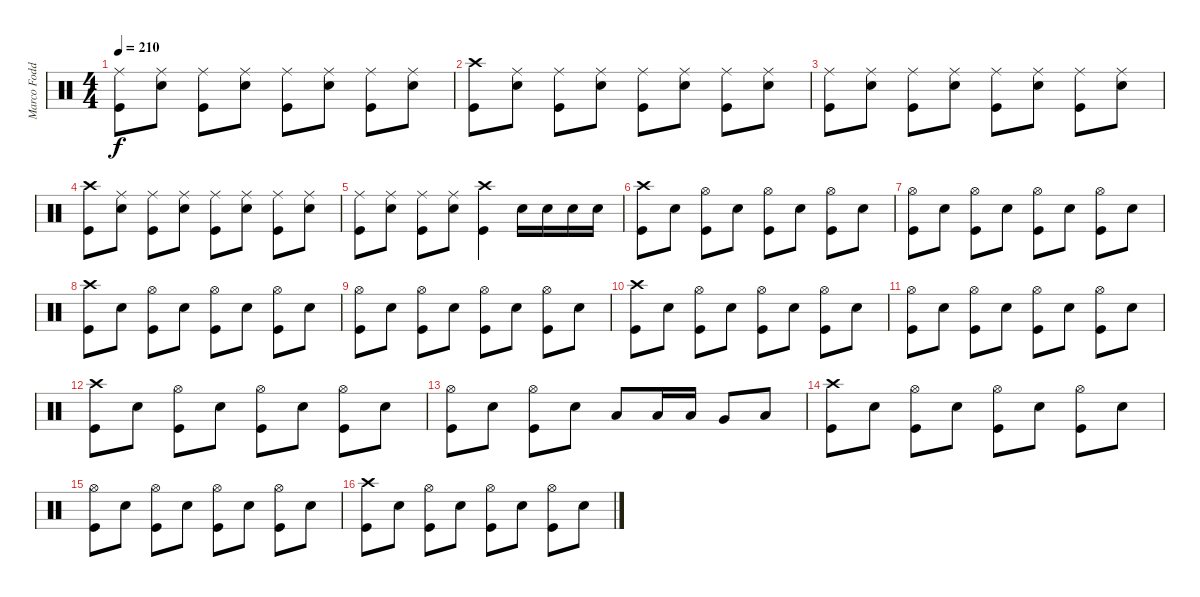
\track ("Marco Foddis" "Marco Fodd") {instrument percussion}
\staff {score}
\articulation defaults
\ts (4 4)
\tempo 210
\clef neutral
\ks c
("Ride (middle)" "Kick (hit)").8{dy f} ("Ride (middle)" "Snare (hit) 2").8 ("Ride (middle)" "Kick (hit)").8 ("Ride (middle)" "Snare (hit) 2").8 ("Ride (middle)" "Kick (hit)").8 ("Ride (middle)" "Snare (hit) 2").8 ("Ride (middle)" "Kick (hit)").8 ("Ride (middle)" "Snare (hit) 2").8 |
("Crash high (hit)" "Kick (hit)").8 ("Ride (middle)" "Snare (hit) 2").8 ("Ride (middle)" "Kick (hit)").8 ("Ride (middle)" "Snare (hit) 2").8 ("Ride (middle)" "Kick (hit)").8 ("Ride (middle)" "Snare (hit) 2").8 ("Ride (middle)" "Kick (hit)").8 ("Ride (middle)" "Snare (hit) 2").8 |
("Ride (middle)" "Kick (hit)").8 ("Ride (middle)" "Snare (hit) 2").8 ("Ride (middle)" "Kick (hit)").8 ("Ride (middle)" "Snare (hit) 2").8 ("Ride (middle)" "Kick (hit)").8 ("Ride (middle)" "Snare (hit) 2").8 ("Ride (middle)" "Kick (hit)").8 ("Ride (middle)" "Snare (hit) 2").8 |
("Crash high (hit)" "Kick (hit)").8 ("Ride (middle)" "Snare (hit) 2").8 ("Ride (middle)" "Kick (hit)").8 ("Ride (middle)" "Snare (hit) 2").8 ("Ride (middle)" "Kick (hit)").8 ("Ride (middle)" "Snare (hit) 2").8 ("Ride (middle)" "Kick (hit)").8 ("Ride (middle)" "Snare (hit) 2").8 |
("Ride (middle)" "Kick (hit)").8 ("Ride (middle)" "Snare (hit) 2").8 ("Ride (middle)" "Kick (hit)").8 ("Ride (middle)" "Snare (hit) 2").8 ("Crash high (hit)" "Kick (hit)").4 "Snare (hit) 2".16 "Snare (hit) 2".16 "Snare (hit) 2".16 "Snare (hit) 2".16 |
("Crash high (hit)" "Kick (hit)").8 "Snare (hit) 2".8 ("Hi-Hat (open)" "Kick (hit)").8 "Snare (hit) 2".8 ("Hi-Hat (open)" "Kick (hit)").8 "Snare (hit) 2".8 ("Hi-Hat (open)" "Kick (hit)").8 "Snare (hit) 2".8 |
("Hi-Hat (open)" "Kick (hit)").8 "Snare (hit) 2".8 ("Hi-Hat (open)" "Kick (hit)").8 "Snare (hit) 2".8 ("Hi-Hat (open)" "Kick (hit)").8 "Snare (hit) 2".8 ("Hi-Hat (open)" "Kick (hit)").8 "Snare (hit) 2".8 |
("Crash high (hit)" "Kick (hit)").8 "Snare (hit) 2".8 ("Hi-Hat (open)" "Kick (hit)").8 "Snare (hit) 2".8 ("Hi-Hat (open)" "Kick (hit)").8 "Snare (hit) 2".8 ("Hi-Hat (open)" "Kick (hit)").8 "Snare (hit) 2".8 |
("Hi-Hat (open)" "Kick (hit)").8 "Snare (hit) 2".8 ("Hi-Hat (open)" "Kick (hit)").8 "Snare (hit) 2".8 ("Hi-Hat (open)" "Kick (hit)").8 "Snare (hit) 2".8 ("Hi-Hat (open)" "Kick (hit)").8 "Snare (hit) 2".8 |
("Crash high (hit)" "Kick (hit)").8 "Snare (hit) 2".8 ("Hi-Hat (open)" "Kick (hit)").8 "Snare (hit) 2".8 ("Hi-Hat (open)" "Kick (hit)").8 "Snare (hit) 2".8 ("Hi-Hat (open)" "Kick (hit)").8 "Snare (hit) 2".8 |
("Hi-Hat (open)" "Kick (hit)").8 "Snare (hit) 2".8 ("Hi-Hat (open)" "Kick (hit)").8 "Snare (hit) 2".8 ("Hi-Hat (open)" "Kick (hit)").8 "Snare (hit) 2".8 ("Hi-Hat (open)" "Kick (hit)").8 "Snare (hit) 2".8 |
("Crash high (hit)" "Kick (hit)").8 "Snare (hit) 2".8 ("Hi-Hat (open)" "Kick (hit)").8 "Snare (hit) 2".8 ("Hi-Hat (open)" "Kick (hit)").8 "Snare (hit) 2".8 ("Hi-Hat (open)" "Kick (hit)").8 "Snare (hit) 2".8 |
("Hi-Hat (open)" "Kick (hit)").8 "Snare (hit) 2".8 ("Hi-Hat (open)" "Kick (hit)").8 "Snare (hit) 2".8 "Low Tom (hit)".8 "Low Tom (hit)".16 "Low Tom (hit)".16 "Very Low Tom (hit)".8 "Low Floor Tom (hit)".8 |
("Crash high (hit)" "Kick (hit)").8 "Snare (hit) 2".8 ("Hi-Hat (open)" "Kick (hit)").8 "Snare (hit) 2".8 ("Hi-Hat (open)" "Kick (hit)").8 "Snare (hit) 2".8 ("Hi-Hat (open)" "Kick (hit)").8 "Snare (hit) 2".8 |
("Hi-Hat (open)" "Kick (hit)").8 "Snare (hit) 2".8 ("Hi-Hat (open)" "Kick (hit)").8 "Snare (hit) 2".8 ("Hi-Hat (open)" "Kick (hit)").8 "Snare (hit) 2".8 ("Hi-Hat (open)" "Kick (hit)").8 "Snare (hit) 2".8 |
("Crash high (hit)" "Kick (hit)").8 "Snare (hit) 2".8 ("Hi-Hat (open)" "Kick (hit)").8 "Snare (hit) 2".8 ("Hi-Hat (open)" "Kick (hit)").8 "Snare (hit) 2".8 ("Hi-Hat (open)" "Kick (hit)").8 "Snare (hit) 2".8
